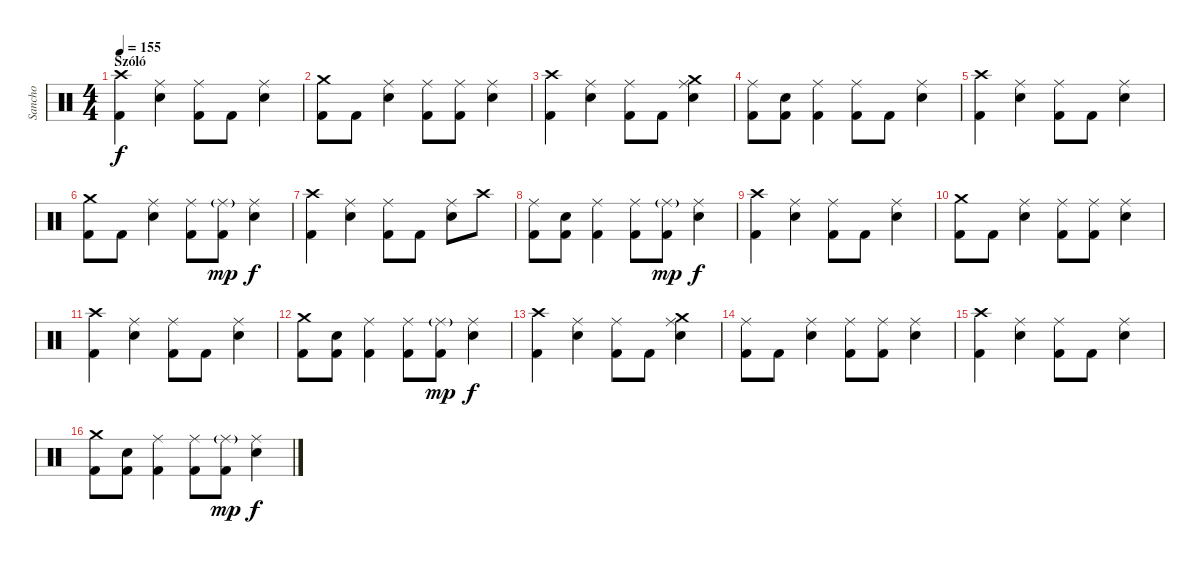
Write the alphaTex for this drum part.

\track ("Sancho" "Sancho") {instrument percussion}
\staff {score}
\articulation defaults
\ts (4 4)
\section ("" "Szóló")
\tempo 155
\clef neutral
\ks c
("Crash high (hit)" "Kick (hit) 2").4{dy f} ("Ride (middle)" "Electric Snare (hit)").4 ("Ride (middle)" "Kick (hit) 2").8 "Kick (hit) 2".8 ("Ride (middle)" "Electric Snare (hit)").4 |
("Crash medium (hit)" "Kick (hit) 2").8 "Kick (hit) 2".8 ("Ride (middle)" "Electric Snare (hit)").4 ("Ride (middle)" "Kick (hit) 2").8 ("Ride (middle)" "Kick (hit) 2").8 ("Ride (middle)" "Electric Snare (hit)").4 |
("Crash high (hit)" "Kick (hit) 2").4 ("Ride (middle)" "Electric Snare (hit)").4 ("Ride (middle)" "Kick (hit) 2").8 "Kick (hit) 2".8 ("Ride (middle)" "Crash medium (hit)" "Electric Snare (hit)").4 |
("Ride (middle)" "Kick (hit) 2").8 ("Electric Snare (hit)" "Kick (hit) 2").8 ("Ride (middle)" "Kick (hit) 2").4 ("Ride (middle)" "Kick (hit) 2").8 "Kick (hit) 2".8 ("Ride (middle)" "Electric Snare (hit)").4 |
("Crash high (hit)" "Kick (hit) 2").4 ("Ride (middle)" "Electric Snare (hit)").4 ("Ride (middle)" "Kick (hit) 2").8 "Kick (hit) 2".8 ("Ride (middle)" "Electric Snare (hit)").4 |
("Crash medium (hit)" "Kick (hit) 2").8 "Kick (hit) 2".8 ("Ride (middle)" "Electric Snare (hit)").4 ("Ride (middle)" "Kick (hit) 2").8 ("Ride (middle)"{g} "Kick (hit) 2").8{dy mp} ("Ride (middle)" "Electric Snare (hit)").4{dy f} |
("Crash high (hit)" "Kick (hit) 2").4 ("Ride (middle)" "Electric Snare (hit)").4 ("Ride (middle)" "Kick (hit) 2").8 "Kick (hit) 2".8 ("Ride (middle)" "Electric Snare (hit)").8 "Crash high (hit)".8 |
("Ride (middle)" "Kick (hit) 2").8 ("Electric Snare (hit)" "Kick (hit) 2").8 ("Ride (middle)" "Kick (hit) 2").4 ("Ride (middle)" "Kick (hit) 2").8 ("Ride (middle)"{g} "Kick (hit) 2").8{dy mp} ("Ride (middle)" "Electric Snare (hit)").4{dy f} |
("Crash high (hit)" "Kick (hit) 2").4 ("Ride (middle)" "Electric Snare (hit)").4 ("Ride (middle)" "Kick (hit) 2").8 "Kick (hit) 2".8 ("Ride (middle)" "Electric Snare (hit)").4 |
("Crash medium (hit)" "Kick (hit) 2").8 "Kick (hit) 2".8 ("Ride (middle)" "Electric Snare (hit)").4 ("Ride (middle)" "Kick (hit) 2").8 ("Ride (middle)" "Kick (hit) 2").8 ("Ride (middle)" "Electric Snare (hit)").4 |
("Crash high (hit)" "Kick (hit) 2").4 ("Ride (middle)" "Electric Snare (hit)").4 ("Ride (middle)" "Kick (hit) 2").8 "Kick (hit) 2".8 ("Ride (middle)" "Electric Snare (hit)").4 |
("Crash medium (hit)" "Kick (hit) 2").8 ("Electric Snare (hit)" "Kick (hit) 2").8 ("Ride (middle)" "Kick (hit) 2").4 ("Ride (middle)" "Kick (hit) 2").8 ("Ride (middle)"{g} "Kick (hit) 2").8{dy mp} ("Ride (middle)" "Electric Snare (hit)").4{dy f} |
("Crash high (hit)" "Kick (hit) 2").4 ("Ride (middle)" "Electric Snare (hit)").4 ("Ride (middle)" "Kick (hit) 2").8 "Kick (hit) 2".8 ("Ride (middle)" "Crash medium (hit)" "Electric Snare (hit)").4 |
("Ride (middle)" "Kick (hit) 2").8 "Kick (hit) 2".8 ("Ride (middle)" "Electric Snare (hit)").4 ("Ride (middle)" "Kick (hit) 2").8 ("Ride (middle)" "Kick (hit) 2").8 ("Ride (middle)" "Electric Snare (hit)").4 |
("Crash high (hit)" "Kick (hit) 2").4 ("Ride (middle)" "Electric Snare (hit)").4 ("Ride (middle)" "Kick (hit) 2").8 "Kick (hit) 2".8 ("Ride (middle)" "Electric Snare (hit)").4 |
("Crash medium (hit)" "Kick (hit) 2").8 ("Electric Snare (hit)" "Kick (hit) 2").8 ("Ride (middle)" "Kick (hit) 2").4 ("Ride (middle)" "Kick (hit) 2").8 ("Ride (middle)"{g} "Kick (hit) 2").8{dy mp} ("Ride (middle)" "Electric Snare (hit)").4{dy f}
